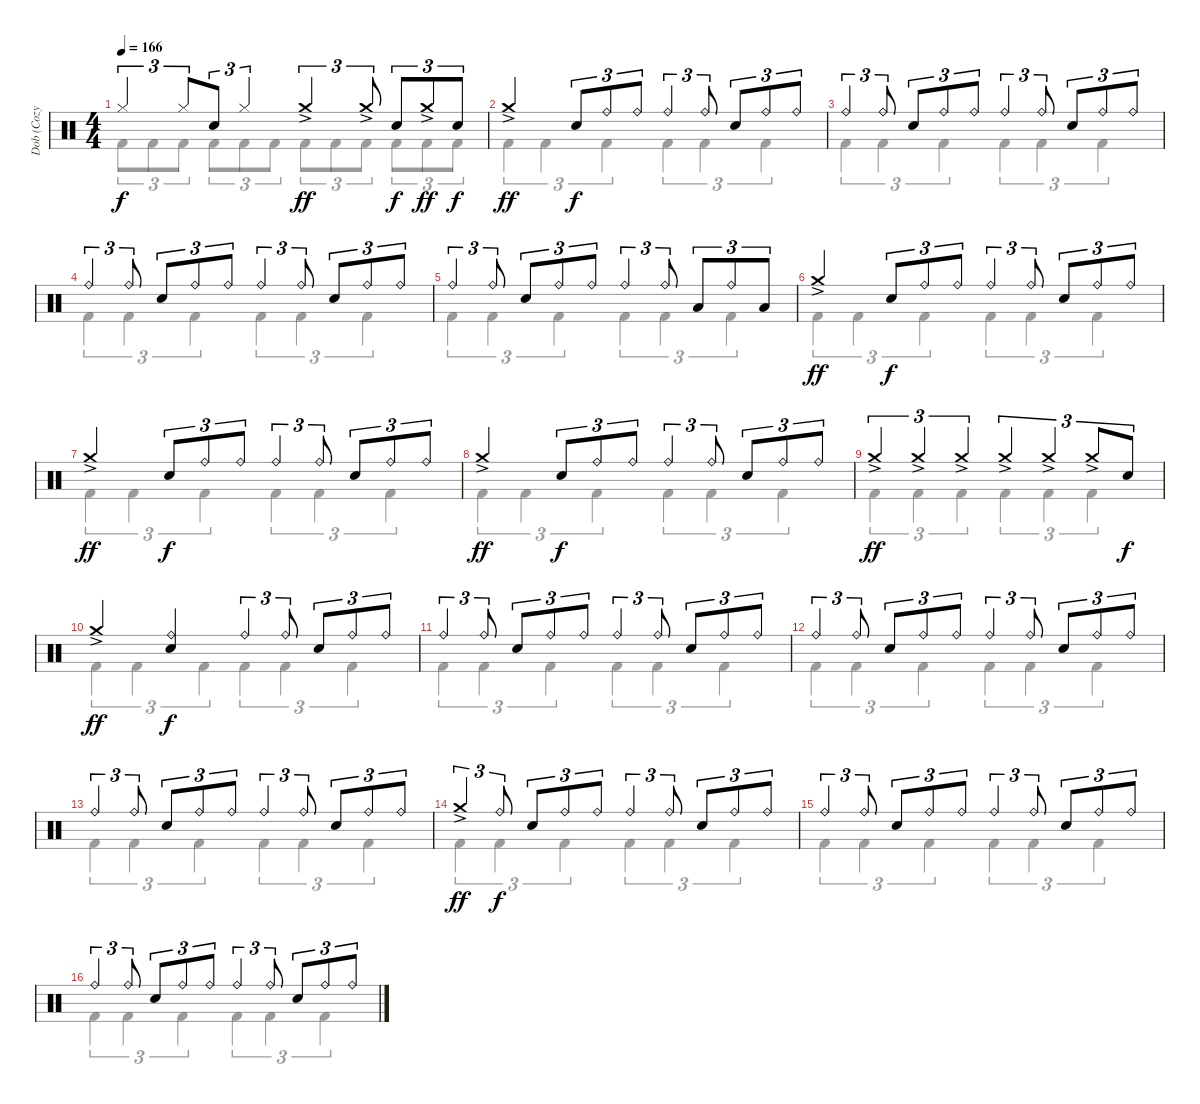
\track ("Dob (Cozy Powell)" "Dob (Cozy ") {instrument percussion}
\staff {score}
\articulation defaults
\voice
\ts (4 4)
\tempo 166
\clef neutral
\ks c "Hi-Hat (closed)".4{tu (3 2) dy f} "Hi-Hat (closed)".8{tu (3 2) beam merge} "Electric Snare (hit)".8{tu (3 2)} "Hi-Hat (closed)".4{tu (3 2)} "Crash medium (hit)"{ac}.4{tu (3 2) dy ff} "Crash medium (hit)"{ac}.8{tu (3 2)} "Electric Snare (hit)".8{tu (3 2) dy f} "Crash medium (hit)"{ac}.8{tu (3 2) dy ff} "Electric Snare (hit)".8{tu (3 2) dy f}
|
"Crash medium (hit)"{ac}.4{dy ff} "Electric Snare (hit)".8{tu (3 2) dy f} "Ride (bell)".8{tu (3 2)} "Ride (bell)".8{tu (3 2)} "Ride (bell)".4{tu (3 2)} "Ride (bell)".8{tu (3 2)} "Electric Snare (hit)".8{tu (3 2)} "Ride (bell)".8{tu (3 2)} "Ride (bell)".8{tu (3 2)} |
"Ride (bell)".4{tu (3 2)} "Ride (bell)".8{tu (3 2)} "Electric Snare (hit)".8{tu (3 2)} "Ride (bell)".8{tu (3 2)} "Ride (bell)".8{tu (3 2)} "Ride (bell)".4{tu (3 2)} "Ride (bell)".8{tu (3 2)} "Electric Snare (hit)".8{tu (3 2)} "Ride (bell)".8{tu (3 2)} "Ride (bell)".8{tu (3 2)} |
"Ride (bell)".4{tu (3 2)} "Ride (bell)".8{tu (3 2)} "Electric Snare (hit)".8{tu (3 2)} "Ride (bell)".8{tu (3 2)} "Ride (bell)".8{tu (3 2)} "Ride (bell)".4{tu (3 2)} "Ride (bell)".8{tu (3 2)} "Electric Snare (hit)".8{tu (3 2)} "Ride (bell)".8{tu (3 2)} "Ride (bell)".8{tu (3 2)} |
"Ride (bell)".4{tu (3 2)} "Ride (bell)".8{tu (3 2)} "Electric Snare (hit)".8{tu (3 2)} "Ride (bell)".8{tu (3 2)} "Ride (bell)".8{tu (3 2)} "Ride (bell)".4{tu (3 2)} "Ride (bell)".8{tu (3 2)} "Low Tom (hit)".8{tu (3 2)} "Ride (bell)".8{tu (3 2)} "Low Tom (hit)".8{tu (3 2)} |
"Crash medium (hit)"{ac}.4{dy ff} "Electric Snare (hit)".8{tu (3 2) dy f} "Ride (bell)".8{tu (3 2)} "Ride (bell)".8{tu (3 2)} "Ride (bell)".4{tu (3 2)} "Ride (bell)".8{tu (3 2)} "Electric Snare (hit)".8{tu (3 2)} "Ride (bell)".8{tu (3 2)} "Ride (bell)".8{tu (3 2)} |
"Crash medium (hit)"{ac}.4{dy ff} "Electric Snare (hit)".8{tu (3 2) dy f} "Ride (bell)".8{tu (3 2)} "Ride (bell)".8{tu (3 2)} "Ride (bell)".4{tu (3 2)} "Ride (bell)".8{tu (3 2)} "Electric Snare (hit)".8{tu (3 2)} "Ride (bell)".8{tu (3 2)} "Ride (bell)".8{tu (3 2)} |
"Crash medium (hit)"{ac}.4{dy ff} "Electric Snare (hit)".8{tu (3 2) dy f} "Ride (bell)".8{tu (3 2)} "Ride (bell)".8{tu (3 2)} "Ride (bell)".4{tu (3 2)} "Ride (bell)".8{tu (3 2)} "Electric Snare (hit)".8{tu (3 2)} "Ride (bell)".8{tu (3 2)} "Ride (bell)".8{tu (3 2)} |
"Crash medium (hit)"{ac}.4{tu (3 2) dy ff} "Crash medium (hit)"{ac}.4{tu (3 2)} "Crash medium (hit)"{ac}.4{tu (3 2)} "Crash medium (hit)"{ac}.4{tu (3 2)} "Crash medium (hit)"{ac}.4{tu (3 2)} "Crash medium (hit)"{ac}.8{tu (3 2)} "Electric Snare (hit)".8{tu (3 2) dy f} |
"Crash medium (hit)"{ac}.4{dy ff} ("Ride (bell)" "Electric Snare (hit)").4{dy f} "Ride (bell)".4{tu (3 2)} "Ride (bell)".8{tu (3 2)} "Electric Snare (hit)".8{tu (3 2)} "Ride (bell)".8{tu (3 2)} "Ride (bell)".8{tu (3 2)} |
"Ride (bell)".4{tu (3 2)} "Ride (bell)".8{tu (3 2)} "Electric Snare (hit)".8{tu (3 2)} "Ride (bell)".8{tu (3 2)} "Ride (bell)".8{tu (3 2)} "Ride (bell)".4{tu (3 2)} "Ride (bell)".8{tu (3 2)} "Electric Snare (hit)".8{tu (3 2)} "Ride (bell)".8{tu (3 2)} "Ride (bell)".8{tu (3 2)} |
"Ride (bell)".4{tu (3 2)} "Ride (bell)".8{tu (3 2)} "Electric Snare (hit)".8{tu (3 2)} "Ride (bell)".8{tu (3 2)} "Ride (bell)".8{tu (3 2)} "Ride (bell)".4{tu (3 2)} "Ride (bell)".8{tu (3 2)} "Electric Snare (hit)".8{tu (3 2)} "Ride (bell)".8{tu (3 2)} "Ride (bell)".8{tu (3 2)} |
"Ride (bell)".4{tu (3 2)} "Ride (bell)".8{tu (3 2)} "Electric Snare (hit)".8{tu (3 2)} "Ride (bell)".8{tu (3 2)} "Ride (bell)".8{tu (3 2)} "Ride (bell)".4{tu (3 2)} "Ride (bell)".8{tu (3 2)} "Electric Snare (hit)".8{tu (3 2)} "Ride (bell)".8{tu (3 2)} "Ride (bell)".8{tu (3 2)} |
"Crash medium (hit)"{ac}.4{tu (3 2) dy ff} "Ride (bell)".8{tu (3 2) dy f} "Electric Snare (hit)".8{tu (3 2)} "Ride (bell)".8{tu (3 2)} "Ride (bell)".8{tu (3 2)} "Ride (bell)".4{tu (3 2)} "Ride (bell)".8{tu (3 2)} "Electric Snare (hit)".8{tu (3 2)} "Ride (bell)".8{tu (3 2)} "Ride (bell)".8{tu (3 2)} |
"Ride (bell)".4{tu (3 2)} "Ride (bell)".8{tu (3 2)} "Electric Snare (hit)".8{tu (3 2)} "Ride (bell)".8{tu (3 2)} "Ride (bell)".8{tu (3 2)} "Ride (bell)".4{tu (3 2)} "Ride (bell)".8{tu (3 2)} "Electric Snare (hit)".8{tu (3 2)} "Ride (bell)".8{tu (3 2)} "Ride (bell)".8{tu (3 2)} |
"Ride (bell)".4{tu (3 2)} "Ride (bell)".8{tu (3 2)} "Electric Snare (hit)".8{tu (3 2)} "Ride (bell)".8{tu (3 2)} "Ride (bell)".8{tu (3 2)} "Ride (bell)".4{tu (3 2)} "Ride (bell)".8{tu (3 2)} "Electric Snare (hit)".8{tu (3 2)} "Ride (bell)".8{tu (3 2)} "Ride (bell)".8{tu (3 2)}
\voice
\clef neutral
\ottava regular
\simile none
\ks c "Kick (hit) 2".8{tu (3 2) dy f} "Kick (hit) 2".8{tu (3 2)} "Kick (hit) 2".8{tu (3 2)} "Kick (hit) 2".8{tu (3 2)} "Kick (hit) 2".8{tu (3 2)} "Kick (hit) 2".8{tu (3 2)} "Kick (hit) 2".8{tu (3 2)} "Kick (hit) 2".8{tu (3 2)} "Kick (hit) 2".8{tu (3 2)} "Kick (hit) 2".8{tu (3 2)} "Kick (hit) 2".8{tu (3 2)} "Kick (hit) 2".8{tu (3 2)}
|
"Kick (hit) 2".4{tu (3 2)} "Kick (hit) 2".4{tu (3 2)} "Kick (hit) 2".4{tu (3 2)} "Kick (hit) 2".4{tu (3 2)} "Kick (hit) 2".4{tu (3 2)} "Kick (hit) 2".4{tu (3 2)} |
"Kick (hit) 2".4{tu (3 2)} "Kick (hit) 2".4{tu (3 2)} "Kick (hit) 2".4{tu (3 2)} "Kick (hit) 2".4{tu (3 2)} "Kick (hit) 2".4{tu (3 2)} "Kick (hit) 2".4{tu (3 2)} |
"Kick (hit) 2".4{tu (3 2)} "Kick (hit) 2".4{tu (3 2)} "Kick (hit) 2".4{tu (3 2)} "Kick (hit) 2".4{tu (3 2)} "Kick (hit) 2".4{tu (3 2)} "Kick (hit) 2".4{tu (3 2)} |
"Kick (hit) 2".4{tu (3 2)} "Kick (hit) 2".4{tu (3 2)} "Kick (hit) 2".4{tu (3 2)} "Kick (hit) 2".4{tu (3 2)} "Kick (hit) 2".4{tu (3 2)} "Kick (hit) 2".4{tu (3 2)} |
"Kick (hit) 2".4{tu (3 2)} "Kick (hit) 2".4{tu (3 2)} "Kick (hit) 2".4{tu (3 2)} "Kick (hit) 2".4{tu (3 2)} "Kick (hit) 2".4{tu (3 2)} "Kick (hit) 2".4{tu (3 2)} |
"Kick (hit) 2".4{tu (3 2)} "Kick (hit) 2".4{tu (3 2)} "Kick (hit) 2".4{tu (3 2)} "Kick (hit) 2".4{tu (3 2)} "Kick (hit) 2".4{tu (3 2)} "Kick (hit) 2".4{tu (3 2)} |
"Kick (hit) 2".4{tu (3 2)} "Kick (hit) 2".4{tu (3 2)} "Kick (hit) 2".4{tu (3 2)} "Kick (hit) 2".4{tu (3 2)} "Kick (hit) 2".4{tu (3 2)} "Kick (hit) 2".4{tu (3 2)} |
"Kick (hit) 2".4{tu (3 2)} "Kick (hit) 2".4{tu (3 2)} "Kick (hit) 2".4{tu (3 2)} "Kick (hit) 2".4{tu (3 2)} "Kick (hit) 2".4{tu (3 2)} "Kick (hit) 2".4{tu (3 2)} |
"Kick (hit) 2".4{tu (3 2)} "Kick (hit) 2".4{tu (3 2)} "Kick (hit) 2".4{tu (3 2)} "Kick (hit) 2".4{tu (3 2)} "Kick (hit) 2".4{tu (3 2)} "Kick (hit) 2".4{tu (3 2)} |
"Kick (hit) 2".4{tu (3 2)} "Kick (hit) 2".4{tu (3 2)} "Kick (hit) 2".4{tu (3 2)} "Kick (hit) 2".4{tu (3 2)} "Kick (hit) 2".4{tu (3 2)} "Kick (hit) 2".4{tu (3 2)} |
"Kick (hit) 2".4{tu (3 2)} "Kick (hit) 2".4{tu (3 2)} "Kick (hit) 2".4{tu (3 2)} "Kick (hit) 2".4{tu (3 2)} "Kick (hit) 2".4{tu (3 2)} "Kick (hit) 2".4{tu (3 2)} |
"Kick (hit) 2".4{tu (3 2)} "Kick (hit) 2".4{tu (3 2)} "Kick (hit) 2".4{tu (3 2)} "Kick (hit) 2".4{tu (3 2)} "Kick (hit) 2".4{tu (3 2)} "Kick (hit) 2".4{tu (3 2)} |
"Kick (hit) 2".4{tu (3 2)} "Kick (hit) 2".4{tu (3 2)} "Kick (hit) 2".4{tu (3 2)} "Kick (hit) 2".4{tu (3 2)} "Kick (hit) 2".4{tu (3 2)} "Kick (hit) 2".4{tu (3 2)} |
"Kick (hit) 2".4{tu (3 2)} "Kick (hit) 2".4{tu (3 2)} "Kick (hit) 2".4{tu (3 2)} "Kick (hit) 2".4{tu (3 2)} "Kick (hit) 2".4{tu (3 2)} "Kick (hit) 2".4{tu (3 2)} |
"Kick (hit) 2".4{tu (3 2)} "Kick (hit) 2".4{tu (3 2)} "Kick (hit) 2".4{tu (3 2)} "Kick (hit) 2".4{tu (3 2)} "Kick (hit) 2".4{tu (3 2)} "Kick (hit) 2".4{tu (3 2)}
